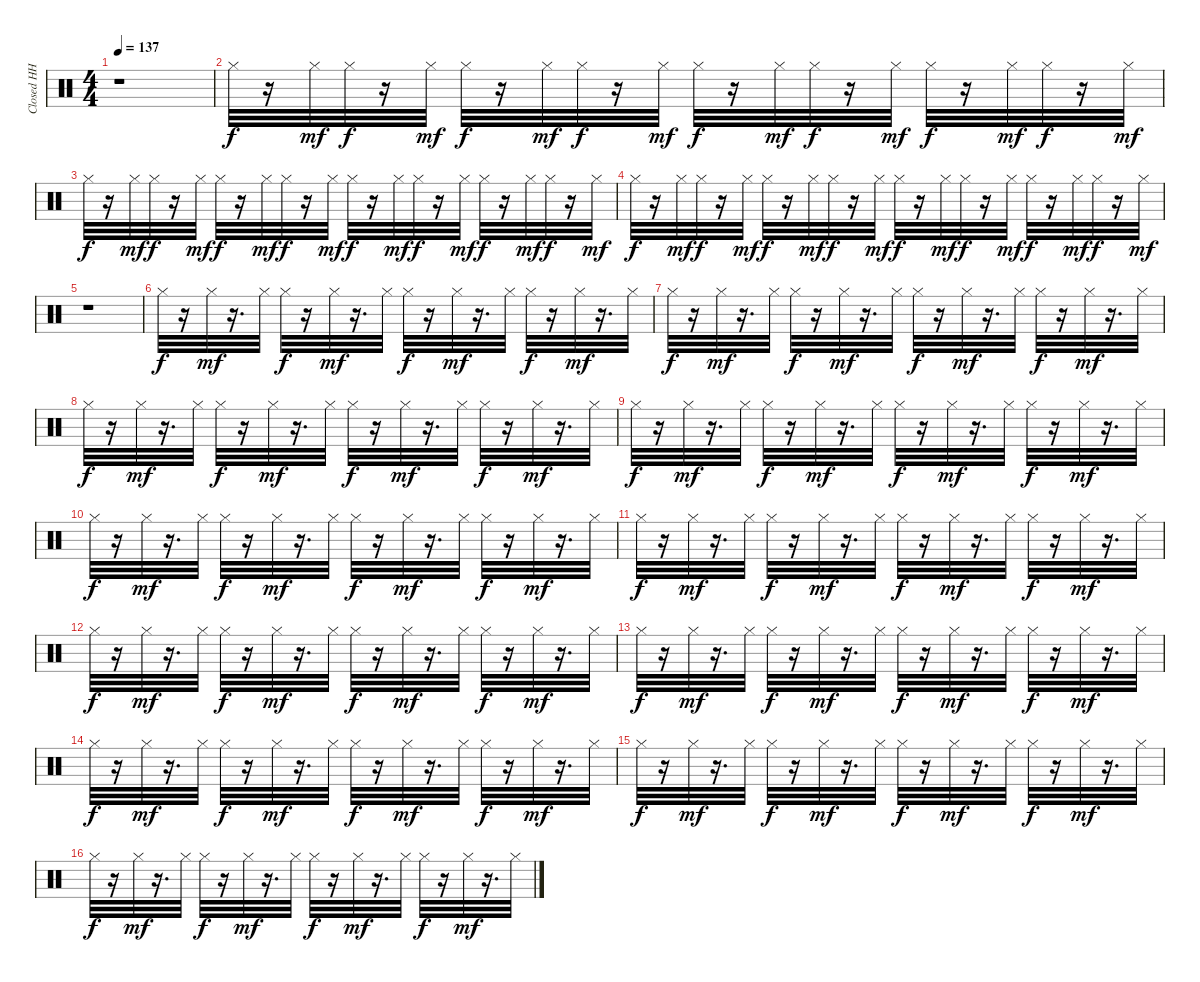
\track ("Closed HH" "Closed HH") {instrument percussion}
\staff {score}
\articulation defaults
\ts (4 4)
\tempo 137
\clef neutral
\ks c
r.1{dy f} |
"Hi-Hat (closed)".32 r.16 "Hi-Hat (closed)".32{dy mf} "Hi-Hat (closed)".32{dy f} r.16 "Hi-Hat (closed)".32{dy mf} "Hi-Hat (closed)".32{dy f} r.16 "Hi-Hat (closed)".32{dy mf} "Hi-Hat (closed)".32{dy f} r.16 "Hi-Hat (closed)".32{dy mf} "Hi-Hat (closed)".32{dy f} r.16 "Hi-Hat (closed)".32{dy mf} "Hi-Hat (closed)".32{dy f} r.16 "Hi-Hat (closed)".32{dy mf} "Hi-Hat (closed)".32{dy f} r.16 "Hi-Hat (closed)".32{dy mf} "Hi-Hat (closed)".32{dy f} r.16 "Hi-Hat (closed)".32{dy mf} |
"Hi-Hat (closed)".32{dy f} r.16 "Hi-Hat (closed)".32{dy mf} "Hi-Hat (closed)".32{dy f} r.16 "Hi-Hat (closed)".32{dy mf} "Hi-Hat (closed)".32{dy f} r.16 "Hi-Hat (closed)".32{dy mf} "Hi-Hat (closed)".32{dy f} r.16 "Hi-Hat (closed)".32{dy mf} "Hi-Hat (closed)".32{dy f} r.16 "Hi-Hat (closed)".32{dy mf} "Hi-Hat (closed)".32{dy f} r.16 "Hi-Hat (closed)".32{dy mf} "Hi-Hat (closed)".32{dy f} r.16 "Hi-Hat (closed)".32{dy mf} "Hi-Hat (closed)".32{dy f} r.16 "Hi-Hat (closed)".32{dy mf} |
"Hi-Hat (closed)".32{dy f} r.16 "Hi-Hat (closed)".32{dy mf} "Hi-Hat (closed)".32{dy f} r.16 "Hi-Hat (closed)".32{dy mf} "Hi-Hat (closed)".32{dy f} r.16 "Hi-Hat (closed)".32{dy mf} "Hi-Hat (closed)".32{dy f} r.16 "Hi-Hat (closed)".32{dy mf} "Hi-Hat (closed)".32{dy f} r.16 "Hi-Hat (closed)".32{dy mf} "Hi-Hat (closed)".32{dy f} r.16 "Hi-Hat (closed)".32{dy mf} "Hi-Hat (closed)".32{dy f} r.16 "Hi-Hat (closed)".32{dy mf} "Hi-Hat (closed)".32{dy f} r.16 "Hi-Hat (closed)".32{dy mf} |
r.1 |
"Hi-Hat (closed)".32{dy f} r.16 "Hi-Hat (closed)".32{dy mf} r.16{d} "Hi-Hat (closed)".32 "Hi-Hat (closed)".32{dy f} r.16 "Hi-Hat (closed)".32{dy mf} r.16{d} "Hi-Hat (closed)".32 "Hi-Hat (closed)".32{dy f} r.16 "Hi-Hat (closed)".32{dy mf} r.16{d} "Hi-Hat (closed)".32 "Hi-Hat (closed)".32{dy f} r.16 "Hi-Hat (closed)".32{dy mf} r.16{d} "Hi-Hat (closed)".32 |
"Hi-Hat (closed)".32{dy f} r.16 "Hi-Hat (closed)".32{dy mf} r.16{d} "Hi-Hat (closed)".32 "Hi-Hat (closed)".32{dy f} r.16 "Hi-Hat (closed)".32{dy mf} r.16{d} "Hi-Hat (closed)".32 "Hi-Hat (closed)".32{dy f} r.16 "Hi-Hat (closed)".32{dy mf} r.16{d} "Hi-Hat (closed)".32 "Hi-Hat (closed)".32{dy f} r.16 "Hi-Hat (closed)".32{dy mf} r.16{d} "Hi-Hat (closed)".32 |
"Hi-Hat (closed)".32{dy f} r.16 "Hi-Hat (closed)".32{dy mf} r.16{d} "Hi-Hat (closed)".32 "Hi-Hat (closed)".32{dy f} r.16 "Hi-Hat (closed)".32{dy mf} r.16{d} "Hi-Hat (closed)".32 "Hi-Hat (closed)".32{dy f} r.16 "Hi-Hat (closed)".32{dy mf} r.16{d} "Hi-Hat (closed)".32 "Hi-Hat (closed)".32{dy f} r.16 "Hi-Hat (closed)".32{dy mf} r.16{d} "Hi-Hat (closed)".32 |
"Hi-Hat (closed)".32{dy f} r.16 "Hi-Hat (closed)".32{dy mf} r.16{d} "Hi-Hat (closed)".32 "Hi-Hat (closed)".32{dy f} r.16 "Hi-Hat (closed)".32{dy mf} r.16{d} "Hi-Hat (closed)".32 "Hi-Hat (closed)".32{dy f} r.16 "Hi-Hat (closed)".32{dy mf} r.16{d} "Hi-Hat (closed)".32 "Hi-Hat (closed)".32{dy f} r.16 "Hi-Hat (closed)".32{dy mf} r.16{d} "Hi-Hat (closed)".32 |
"Hi-Hat (closed)".32{dy f} r.16 "Hi-Hat (closed)".32{dy mf} r.16{d} "Hi-Hat (closed)".32 "Hi-Hat (closed)".32{dy f} r.16 "Hi-Hat (closed)".32{dy mf} r.16{d} "Hi-Hat (closed)".32 "Hi-Hat (closed)".32{dy f} r.16 "Hi-Hat (closed)".32{dy mf} r.16{d} "Hi-Hat (closed)".32 "Hi-Hat (closed)".32{dy f} r.16 "Hi-Hat (closed)".32{dy mf} r.16{d} "Hi-Hat (closed)".32 |
"Hi-Hat (closed)".32{dy f} r.16 "Hi-Hat (closed)".32{dy mf} r.16{d} "Hi-Hat (closed)".32 "Hi-Hat (closed)".32{dy f} r.16 "Hi-Hat (closed)".32{dy mf} r.16{d} "Hi-Hat (closed)".32 "Hi-Hat (closed)".32{dy f} r.16 "Hi-Hat (closed)".32{dy mf} r.16{d} "Hi-Hat (closed)".32 "Hi-Hat (closed)".32{dy f} r.16 "Hi-Hat (closed)".32{dy mf} r.16{d} "Hi-Hat (closed)".32 |
"Hi-Hat (closed)".32{dy f} r.16 "Hi-Hat (closed)".32{dy mf} r.16{d} "Hi-Hat (closed)".32 "Hi-Hat (closed)".32{dy f} r.16 "Hi-Hat (closed)".32{dy mf} r.16{d} "Hi-Hat (closed)".32 "Hi-Hat (closed)".32{dy f} r.16 "Hi-Hat (closed)".32{dy mf} r.16{d} "Hi-Hat (closed)".32 "Hi-Hat (closed)".32{dy f} r.16 "Hi-Hat (closed)".32{dy mf} r.16{d} "Hi-Hat (closed)".32 |
"Hi-Hat (closed)".32{dy f} r.16 "Hi-Hat (closed)".32{dy mf} r.16{d} "Hi-Hat (closed)".32 "Hi-Hat (closed)".32{dy f} r.16 "Hi-Hat (closed)".32{dy mf} r.16{d} "Hi-Hat (closed)".32 "Hi-Hat (closed)".32{dy f} r.16 "Hi-Hat (closed)".32{dy mf} r.16{d} "Hi-Hat (closed)".32 "Hi-Hat (closed)".32{dy f} r.16 "Hi-Hat (closed)".32{dy mf} r.16{d} "Hi-Hat (closed)".32 |
"Hi-Hat (closed)".32{dy f} r.16 "Hi-Hat (closed)".32{dy mf} r.16{d} "Hi-Hat (closed)".32 "Hi-Hat (closed)".32{dy f} r.16 "Hi-Hat (closed)".32{dy mf} r.16{d} "Hi-Hat (closed)".32 "Hi-Hat (closed)".32{dy f} r.16 "Hi-Hat (closed)".32{dy mf} r.16{d} "Hi-Hat (closed)".32 "Hi-Hat (closed)".32{dy f} r.16 "Hi-Hat (closed)".32{dy mf} r.16{d} "Hi-Hat (closed)".32 |
"Hi-Hat (closed)".32{dy f} r.16 "Hi-Hat (closed)".32{dy mf} r.16{d} "Hi-Hat (closed)".32 "Hi-Hat (closed)".32{dy f} r.16 "Hi-Hat (closed)".32{dy mf} r.16{d} "Hi-Hat (closed)".32 "Hi-Hat (closed)".32{dy f} r.16 "Hi-Hat (closed)".32{dy mf} r.16{d} "Hi-Hat (closed)".32 "Hi-Hat (closed)".32{dy f} r.16 "Hi-Hat (closed)".32{dy mf} r.16{d} "Hi-Hat (closed)".32 |
"Hi-Hat (closed)".32{dy f} r.16 "Hi-Hat (closed)".32{dy mf} r.16{d} "Hi-Hat (closed)".32 "Hi-Hat (closed)".32{dy f} r.16 "Hi-Hat (closed)".32{dy mf} r.16{d} "Hi-Hat (closed)".32 "Hi-Hat (closed)".32{dy f} r.16 "Hi-Hat (closed)".32{dy mf} r.16{d} "Hi-Hat (closed)".32 "Hi-Hat (closed)".32{dy f} r.16 "Hi-Hat (closed)".32{dy mf} r.16{d} "Hi-Hat (closed)".32
